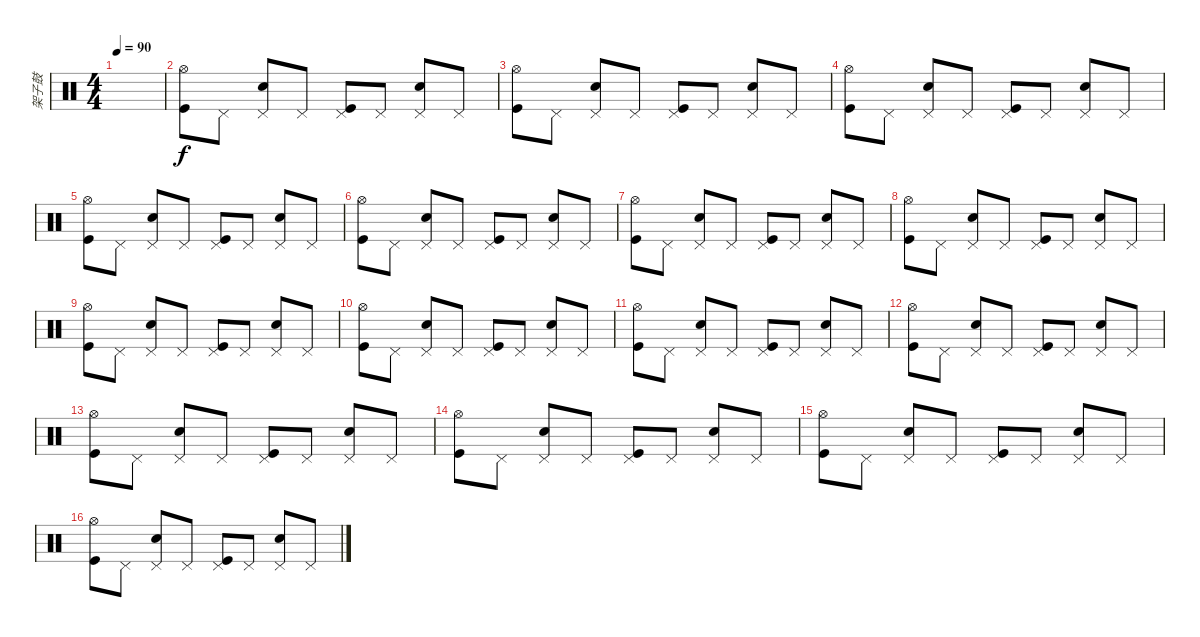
\track ("架子鼓" "架子鼓") {instrument percussion}
\staff {score}
\articulation defaults
\ts (4 4)
\tempo 90
\clef neutral
\ks c
|
("Hi-Hat (open)" "Kick (hit)").8 "Pedal Hi-Hat (hit)".8 ("Snare (hit) 2" "Pedal Hi-Hat (hit)").8 "Pedal Hi-Hat (hit)".8 ("Pedal Hi-Hat (hit)" "Kick (hit)").8 "Pedal Hi-Hat (hit)".8 ("Snare (hit) 2" "Pedal Hi-Hat (hit)").8 "Pedal Hi-Hat (hit)".8 |
("Hi-Hat (open)" "Kick (hit)").8 "Pedal Hi-Hat (hit)".8 ("Snare (hit) 2" "Pedal Hi-Hat (hit)").8 "Pedal Hi-Hat (hit)".8 ("Pedal Hi-Hat (hit)" "Kick (hit)").8 "Pedal Hi-Hat (hit)".8 ("Snare (hit) 2" "Pedal Hi-Hat (hit)").8 "Pedal Hi-Hat (hit)".8 |
("Hi-Hat (open)" "Kick (hit)").8 "Pedal Hi-Hat (hit)".8 ("Snare (hit) 2" "Pedal Hi-Hat (hit)").8 "Pedal Hi-Hat (hit)".8 ("Pedal Hi-Hat (hit)" "Kick (hit)").8 "Pedal Hi-Hat (hit)".8 ("Snare (hit) 2" "Pedal Hi-Hat (hit)").8 "Pedal Hi-Hat (hit)".8 |
("Hi-Hat (open)" "Kick (hit)").8 "Pedal Hi-Hat (hit)".8 ("Snare (hit) 2" "Pedal Hi-Hat (hit)").8 "Pedal Hi-Hat (hit)".8 ("Pedal Hi-Hat (hit)" "Kick (hit)").8 "Pedal Hi-Hat (hit)".8 ("Snare (hit) 2" "Pedal Hi-Hat (hit)").8 "Pedal Hi-Hat (hit)".8 |
("Hi-Hat (open)" "Kick (hit)").8 "Pedal Hi-Hat (hit)".8 ("Snare (hit) 2" "Pedal Hi-Hat (hit)").8 "Pedal Hi-Hat (hit)".8 ("Pedal Hi-Hat (hit)" "Kick (hit)").8 "Pedal Hi-Hat (hit)".8 ("Snare (hit) 2" "Pedal Hi-Hat (hit)").8 "Pedal Hi-Hat (hit)".8 |
("Hi-Hat (open)" "Kick (hit)").8 "Pedal Hi-Hat (hit)".8 ("Snare (hit) 2" "Pedal Hi-Hat (hit)").8 "Pedal Hi-Hat (hit)".8 ("Pedal Hi-Hat (hit)" "Kick (hit)").8 "Pedal Hi-Hat (hit)".8 ("Snare (hit) 2" "Pedal Hi-Hat (hit)").8 "Pedal Hi-Hat (hit)".8 |
("Hi-Hat (open)" "Kick (hit)").8 "Pedal Hi-Hat (hit)".8 ("Snare (hit) 2" "Pedal Hi-Hat (hit)").8 "Pedal Hi-Hat (hit)".8 ("Pedal Hi-Hat (hit)" "Kick (hit)").8 "Pedal Hi-Hat (hit)".8 ("Snare (hit) 2" "Pedal Hi-Hat (hit)").8 "Pedal Hi-Hat (hit)".8 |
("Hi-Hat (open)" "Kick (hit)").8 "Pedal Hi-Hat (hit)".8 ("Snare (hit) 2" "Pedal Hi-Hat (hit)").8 "Pedal Hi-Hat (hit)".8 ("Pedal Hi-Hat (hit)" "Kick (hit)").8 "Pedal Hi-Hat (hit)".8 ("Snare (hit) 2" "Pedal Hi-Hat (hit)").8 "Pedal Hi-Hat (hit)".8 |
("Hi-Hat (open)" "Kick (hit)").8 "Pedal Hi-Hat (hit)".8 ("Snare (hit) 2" "Pedal Hi-Hat (hit)").8 "Pedal Hi-Hat (hit)".8 ("Pedal Hi-Hat (hit)" "Kick (hit)").8 "Pedal Hi-Hat (hit)".8 ("Snare (hit) 2" "Pedal Hi-Hat (hit)").8 "Pedal Hi-Hat (hit)".8 |
("Hi-Hat (open)" "Kick (hit)").8 "Pedal Hi-Hat (hit)".8 ("Snare (hit) 2" "Pedal Hi-Hat (hit)").8 "Pedal Hi-Hat (hit)".8 ("Pedal Hi-Hat (hit)" "Kick (hit)").8 "Pedal Hi-Hat (hit)".8 ("Snare (hit) 2" "Pedal Hi-Hat (hit)").8 "Pedal Hi-Hat (hit)".8 |
("Hi-Hat (open)" "Kick (hit)").8 "Pedal Hi-Hat (hit)".8 ("Snare (hit) 2" "Pedal Hi-Hat (hit)").8 "Pedal Hi-Hat (hit)".8 ("Pedal Hi-Hat (hit)" "Kick (hit)").8 "Pedal Hi-Hat (hit)".8 ("Snare (hit) 2" "Pedal Hi-Hat (hit)").8 "Pedal Hi-Hat (hit)".8 |
("Hi-Hat (open)" "Kick (hit)").8 "Pedal Hi-Hat (hit)".8 ("Snare (hit) 2" "Pedal Hi-Hat (hit)").8 "Pedal Hi-Hat (hit)".8 ("Pedal Hi-Hat (hit)" "Kick (hit)").8 "Pedal Hi-Hat (hit)".8 ("Snare (hit) 2" "Pedal Hi-Hat (hit)").8 "Pedal Hi-Hat (hit)".8 |
("Hi-Hat (open)" "Kick (hit)").8 "Pedal Hi-Hat (hit)".8 ("Snare (hit) 2" "Pedal Hi-Hat (hit)").8 "Pedal Hi-Hat (hit)".8 ("Pedal Hi-Hat (hit)" "Kick (hit)").8 "Pedal Hi-Hat (hit)".8 ("Snare (hit) 2" "Pedal Hi-Hat (hit)").8 "Pedal Hi-Hat (hit)".8 |
("Hi-Hat (open)" "Kick (hit)").8 "Pedal Hi-Hat (hit)".8 ("Snare (hit) 2" "Pedal Hi-Hat (hit)").8 "Pedal Hi-Hat (hit)".8 ("Pedal Hi-Hat (hit)" "Kick (hit)").8 "Pedal Hi-Hat (hit)".8 ("Snare (hit) 2" "Pedal Hi-Hat (hit)").8 "Pedal Hi-Hat (hit)".8 |
("Hi-Hat (open)" "Kick (hit)").8 "Pedal Hi-Hat (hit)".8 ("Snare (hit) 2" "Pedal Hi-Hat (hit)").8 "Pedal Hi-Hat (hit)".8 ("Pedal Hi-Hat (hit)" "Kick (hit)").8 "Pedal Hi-Hat (hit)".8 ("Snare (hit) 2" "Pedal Hi-Hat (hit)").8 "Pedal Hi-Hat (hit)".8
